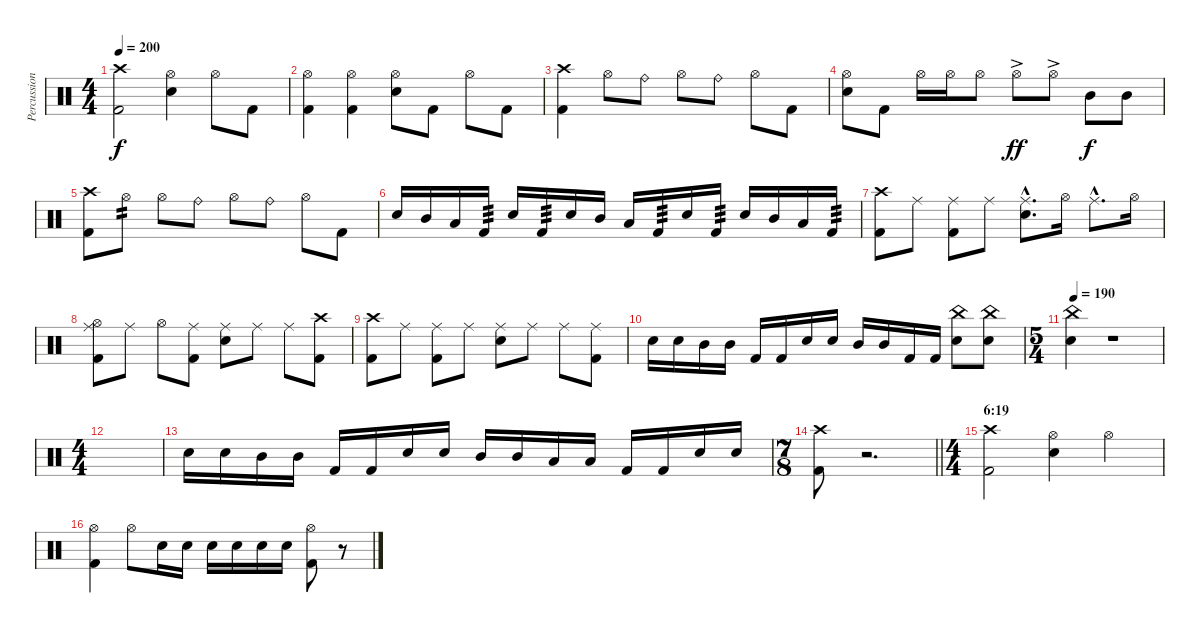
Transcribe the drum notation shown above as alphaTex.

\track ("Percussion" "Percussion") {instrument percussion}
\staff {score}
\articulation defaults
\ts (4 4)
\tempo 200
\clef neutral
\ks c
("Crash high (hit)" "Kick (hit) 2").2{dy f volume 13} ("Hi-Hat (open)" "Electric Snare (hit)").4 "Hi-Hat (open)".8 "Kick (hit) 2".8 |
("Kick (hit) 2" "Hi-Hat (open)").4 ("Hi-Hat (open)" "Kick (hit) 2").4 ("Hi-Hat (open)" "Electric Snare (hit)").8 "Kick (hit) 2".8 "Hi-Hat (open)".8 "Kick (hit) 2".8 |
("Crash high (hit)" "Kick (hit) 2").4 "Hi-Hat (open)".8 "Ride (bell)".8 "Hi-Hat (open)".8 "Ride (bell)".8 "Hi-Hat (open)".8 "Kick (hit) 2".8 |
("Hi-Hat (open)" "Electric Snare (hit)").8 "Kick (hit) 2".8 "Hi-Hat (open)".16 "Hi-Hat (open)".16 "Hi-Hat (open)".8 "Hi-Hat (open)"{ac}.8{dy ff} "Hi-Hat (open)"{ac}.8 "Mid Tom (hit)".8{dy f} "Mid Tom (hit)".8 |
("Crash high (hit)" "Kick (hit) 2").8 "Hi-Hat (open)".8{tp 2} "Hi-Hat (open)".8 "Ride (bell)".8 "Hi-Hat (open)".8 "Ride (bell)".8 "Hi-Hat (open)".8 "Kick (hit) 2".8 |
"Electric Snare (hit)".16 "Mid Tom (hit)".16 "Low Tom (hit)".16 "Kick (hit) 2".16{tp 3} "Electric Snare (hit)".16 "Kick (hit) 2".16{tp 3} "Electric Snare (hit)".16 "Mid Tom (hit)".16 "Low Tom (hit)".16 "Kick (hit) 2".16{tp 3} "Electric Snare (hit)".16 "Kick (hit) 2".16{tp 3} "Electric Snare (hit)".16 "Mid Tom (hit)".16 "Low Tom (hit)".16 "Kick (hit) 2".16{tp 3} |
("Crash high (hit)" "Kick (hit) 2").8 "Ride (middle)".8 ("Ride (middle)" "Kick (hit) 2").8 "Ride (middle)".8 ("Ride (middle)"{hac} "Electric Snare (hit)"{hac}).8{d} "Hi-Hat (open)".16 "Ride (middle)"{hac}.8{d} "Hi-Hat (open)".16 |
("Ride (middle)" "Hi-Hat (open)" "Kick (hit) 2").8 "Ride (middle)".8 "Hi-Hat (open)".8 ("Ride (middle)" "Kick (hit) 2").8 ("Ride (middle)" "Electric Snare (hit)").8 "Ride (middle)".8 "Ride (middle)".8 ("Crash high (hit)" "Kick (hit) 2").8 |
("Crash high (hit)" "Kick (hit) 2").8 "Ride (middle)".8 ("Ride (middle)" "Kick (hit) 2").8 "Ride (middle)".8 ("Ride (middle)" "Electric Snare (hit)").8 "Ride (middle)".8 "Ride (middle)".8 ("Ride (middle)" "Kick (hit) 2").8 |
"Electric Snare (hit)".16 "Electric Snare (hit)".16 "Mid Tom (hit)".16 "Mid Tom (hit)".16 "Kick (hit) 2".16 "Kick (hit) 2".16 "Electric Snare (hit)".16 "Electric Snare (hit)".16 "Mid Tom (hit)".16 "Mid Tom (hit)".16 "Kick (hit) 2".16 "Kick (hit) 2".16 ("China (hit)" "Electric Snare (hit)").8 ("China (hit)" "Electric Snare (hit)").8 |
\ts (5 4)
\tempo 190
("China (hit)" "Electric Snare (hit)").4 r.1 |
\ts (4 4)
|
"Electric Snare (hit)".16 "Electric Snare (hit)".16 "Mid Tom (hit)".16 "Mid Tom (hit)".16 "Kick (hit) 2".16 "Kick (hit) 2".16 "Electric Snare (hit)".16 "Electric Snare (hit)".16 "Mid Tom (hit)".16 "Mid Tom (hit)".16 "Low Tom (hit)".16 "Low Tom (hit)".16 "Kick (hit) 2".16 "Kick (hit) 2".16 "Electric Snare (hit)".16 "Electric Snare (hit)".16 |
\ts (7 8)
\barLineRight lightlight
("Crash high (hit)" "Kick (hit) 2").8 r.2{d volume 0} |
\ts (4 4)
\section ("" "6:19")
("Crash high (hit)" "Kick (hit) 2").2{volume 13} ("Hi-Hat (open)" "Electric Snare (hit)").4 "Hi-Hat (open)".4 |
("Hi-Hat (open)" "Kick (hit) 2").4 "Hi-Hat (open)".8 "Electric Snare (hit)".16 "Electric Snare (hit)".16 "Electric Snare (hit)".16 "Electric Snare (hit)".16 "Electric Snare (hit)".16 "Electric Snare (hit)".16 ("Hi-Hat (open)" "Kick (hit) 2").8 r.8{volume 0}
